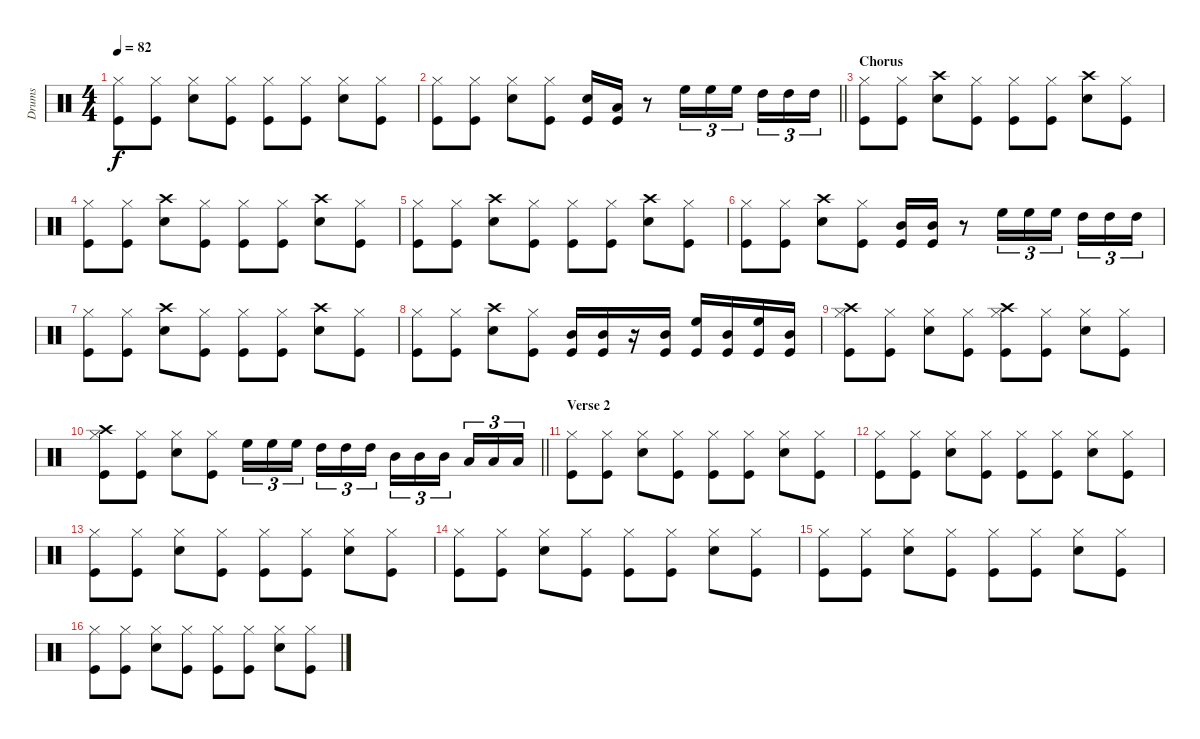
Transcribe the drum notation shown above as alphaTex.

\track ("Drums" "Drums") {instrument percussion}
\staff {score}
\articulation defaults
\ts (4 4)
\tempo 82
\clef neutral
\ks c
("Hi-Hat (closed)" "Kick (hit)").8{dy f} ("Hi-Hat (closed)" "Kick (hit)").8 ("Hi-Hat (closed)" "Snare (hit) 2").8 ("Kick (hit)" "Hi-Hat (closed)").8 ("Kick (hit)" "Hi-Hat (closed)").8 ("Kick (hit)" "Hi-Hat (closed)").8 ("Snare (hit) 2" "Hi-Hat (closed)").8 ("Kick (hit)" "Hi-Hat (closed)").8 |
\barLineRight lightlight
("Hi-Hat (closed)" "Kick (hit)").8 ("Hi-Hat (closed)" "Kick (hit)").8 ("Hi-Hat (closed)" "Snare (hit) 2").8 ("Kick (hit)" "Hi-Hat (closed)").8 ("Snare (hit) 2" "Kick (hit)").16 ("Low Tom (hit)" "Kick (hit)").16 r.8 "High Floor Tom (hit)".16{tu (3 2)} "High Floor Tom (hit)".16{tu (3 2)} "High Floor Tom (hit)".16{tu (3 2) beam splitsecondary} "High Tom (hit)".16{tu (3 2)} "High Tom (hit)".16{tu (3 2)} "High Tom (hit)".16{tu (3 2)} |
\section ("" "Chorus")
("Hi-Hat (closed)" "Kick (hit)").8 ("Hi-Hat (closed)" "Kick (hit)").8 ("Crash high (hit)" "Snare (hit) 2").8 ("Kick (hit)" "Hi-Hat (closed)").8 ("Kick (hit)" "Hi-Hat (closed)").8 ("Kick (hit)" "Hi-Hat (closed)").8 ("Snare (hit) 2" "Crash high (hit)").8 ("Kick (hit)" "Hi-Hat (closed)").8 |
("Hi-Hat (closed)" "Kick (hit)").8 ("Hi-Hat (closed)" "Kick (hit)").8 ("Crash high (hit)" "Snare (hit) 2").8 ("Kick (hit)" "Hi-Hat (closed)").8 ("Kick (hit)" "Hi-Hat (closed)").8 ("Kick (hit)" "Hi-Hat (closed)").8 ("Snare (hit) 2" "Crash high (hit)").8 ("Kick (hit)" "Hi-Hat (closed)").8 |
("Hi-Hat (closed)" "Kick (hit)").8 ("Hi-Hat (closed)" "Kick (hit)").8 ("Crash high (hit)" "Snare (hit) 2").8 ("Kick (hit)" "Hi-Hat (closed)").8 ("Kick (hit)" "Hi-Hat (closed)").8 ("Kick (hit)" "Hi-Hat (closed)").8 ("Snare (hit) 2" "Crash high (hit)").8 ("Kick (hit)" "Hi-Hat (closed)").8 |
("Hi-Hat (closed)" "Kick (hit)").8 ("Hi-Hat (closed)" "Kick (hit)").8 ("Crash high (hit)" "Snare (hit) 2").8 ("Kick (hit)" "Hi-Hat (closed)").8 ("Kick (hit)" "Mid Tom (hit)").16 ("Mid Tom (hit)" "Kick (hit)").16 r.8 "High Floor Tom (hit)".16{tu (3 2)} "High Floor Tom (hit)".16{tu (3 2)} "High Floor Tom (hit)".16{tu (3 2) beam splitsecondary} "High Tom (hit)".16{tu (3 2)} "High Tom (hit)".16{tu (3 2)} "High Tom (hit)".16{tu (3 2)} |
("Hi-Hat (closed)" "Kick (hit)").8 ("Hi-Hat (closed)" "Kick (hit)").8 ("Crash high (hit)" "Snare (hit) 2").8 ("Kick (hit)" "Hi-Hat (closed)").8 ("Kick (hit)" "Hi-Hat (closed)").8 ("Kick (hit)" "Hi-Hat (closed)").8 ("Snare (hit) 2" "Crash high (hit)").8 ("Kick (hit)" "Hi-Hat (closed)").8 |
("Hi-Hat (closed)" "Kick (hit)").8 ("Hi-Hat (closed)" "Kick (hit)").8 ("Crash high (hit)" "Snare (hit) 2").8 ("Kick (hit)" "Hi-Hat (closed)").8 ("Kick (hit)" "Mid Tom (hit)").16 ("Kick (hit)" "Mid Tom (hit)").16 r.16 ("Kick (hit)" "Mid Tom (hit)").16 ("High Floor Tom (hit)" "Kick (hit)").16 ("Kick (hit)" "Mid Tom (hit)").16 ("High Floor Tom (hit)" "Kick (hit)").16 ("Mid Tom (hit)" "Kick (hit)").16 |
("Crash high (hit)" "Hi-Hat (closed)" "Kick (hit)").8 ("Hi-Hat (closed)" "Kick (hit)").8 ("Hi-Hat (closed)" "Snare (hit) 2").8 ("Kick (hit)" "Hi-Hat (closed)").8 ("Kick (hit)" "Hi-Hat (closed)" "Crash high (hit)").8 ("Kick (hit)" "Hi-Hat (closed)").8 ("Snare (hit) 2" "Hi-Hat (closed)").8 ("Kick (hit)" "Hi-Hat (closed)").8 |
\barLineRight lightlight
("Crash high (hit)" "Hi-Hat (closed)" "Kick (hit)").8 ("Hi-Hat (closed)" "Kick (hit)").8 ("Hi-Hat (closed)" "Snare (hit) 2").8 ("Kick (hit)" "Hi-Hat (closed)").8 "High Floor Tom (hit)".16{tu (3 2)} "High Floor Tom (hit)".16{tu (3 2)} "High Floor Tom (hit)".16{tu (3 2) beam splitsecondary} "High Tom (hit)".16{tu (3 2)} "High Tom (hit)".16{tu (3 2)} "High Tom (hit)".16{tu (3 2)} "Mid Tom (hit)".16{tu (3 2)} "Mid Tom (hit)".16{tu (3 2)} "Mid Tom (hit)".16{tu (3 2) beam splitsecondary} "Low Tom (hit)".16{tu (3 2)} "Low Tom (hit)".16{tu (3 2)} "Low Tom (hit)".16{tu (3 2)} |
\section ("" "Verse 2")
("Hi-Hat (closed)" "Kick (hit)").8 ("Hi-Hat (closed)" "Kick (hit)").8 ("Hi-Hat (closed)" "Snare (hit) 2").8 ("Kick (hit)" "Hi-Hat (closed)").8 ("Kick (hit)" "Hi-Hat (closed)").8 ("Kick (hit)" "Hi-Hat (closed)").8 ("Snare (hit) 2" "Hi-Hat (closed)").8 ("Kick (hit)" "Hi-Hat (closed)").8 |
("Hi-Hat (closed)" "Kick (hit)").8 ("Hi-Hat (closed)" "Kick (hit)").8 ("Hi-Hat (closed)" "Snare (hit) 2").8 ("Kick (hit)" "Hi-Hat (closed)").8 ("Kick (hit)" "Hi-Hat (closed)").8 ("Kick (hit)" "Hi-Hat (closed)").8 ("Snare (hit) 2" "Hi-Hat (closed)").8 ("Kick (hit)" "Hi-Hat (closed)").8 |
("Hi-Hat (closed)" "Kick (hit)").8 ("Hi-Hat (closed)" "Kick (hit)").8 ("Hi-Hat (closed)" "Snare (hit) 2").8 ("Kick (hit)" "Hi-Hat (closed)").8 ("Kick (hit)" "Hi-Hat (closed)").8 ("Kick (hit)" "Hi-Hat (closed)").8 ("Snare (hit) 2" "Hi-Hat (closed)").8 ("Kick (hit)" "Hi-Hat (closed)").8 |
("Hi-Hat (closed)" "Kick (hit)").8 ("Hi-Hat (closed)" "Kick (hit)").8 ("Hi-Hat (closed)" "Snare (hit) 2").8 ("Kick (hit)" "Hi-Hat (closed)").8 ("Kick (hit)" "Hi-Hat (closed)").8 ("Kick (hit)" "Hi-Hat (closed)").8 ("Snare (hit) 2" "Hi-Hat (closed)").8 ("Kick (hit)" "Hi-Hat (closed)").8 |
("Hi-Hat (closed)" "Kick (hit)").8 ("Hi-Hat (closed)" "Kick (hit)").8 ("Hi-Hat (closed)" "Snare (hit) 2").8 ("Kick (hit)" "Hi-Hat (closed)").8 ("Kick (hit)" "Hi-Hat (closed)").8 ("Kick (hit)" "Hi-Hat (closed)").8 ("Snare (hit) 2" "Hi-Hat (closed)").8 ("Kick (hit)" "Hi-Hat (closed)").8 |
("Hi-Hat (closed)" "Kick (hit)").8 ("Hi-Hat (closed)" "Kick (hit)").8 ("Hi-Hat (closed)" "Snare (hit) 2").8 ("Kick (hit)" "Hi-Hat (closed)").8 ("Kick (hit)" "Hi-Hat (closed)").8 ("Kick (hit)" "Hi-Hat (closed)").8 ("Snare (hit) 2" "Hi-Hat (closed)").8 ("Kick (hit)" "Hi-Hat (closed)").8
